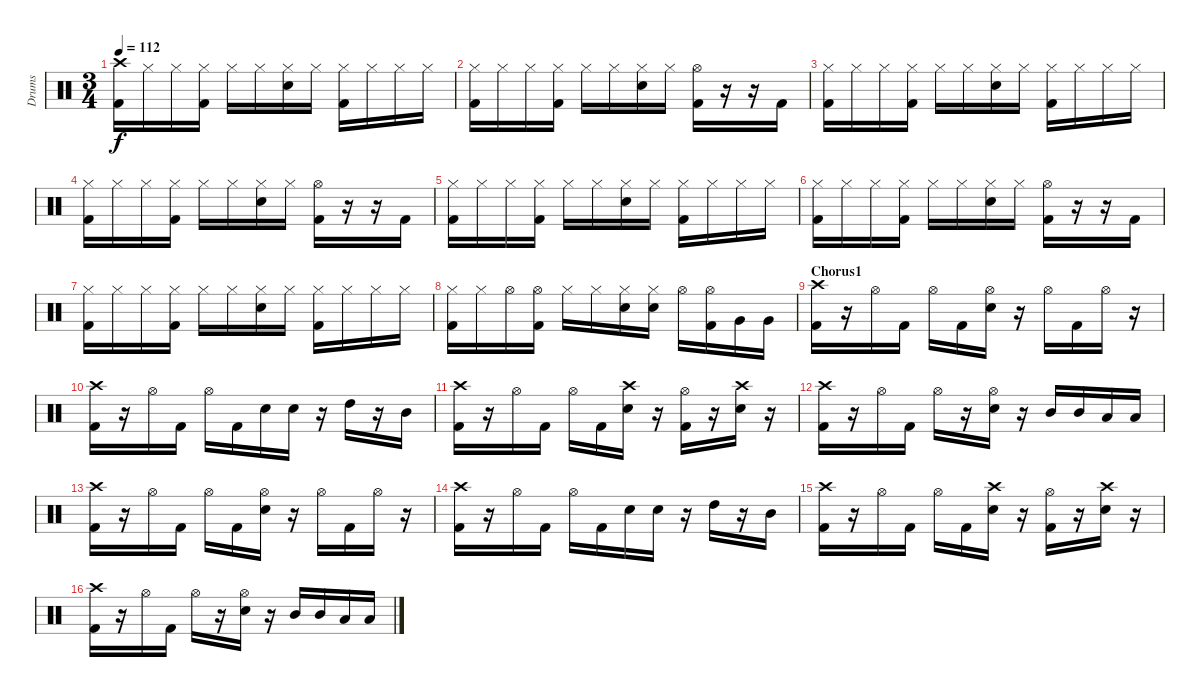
\track ("Drums" "Drums") {instrument percussion}
\staff {score}
\articulation defaults
\ts (3 4)
\tempo 112
\clef neutral
\ks c
("Crash high (hit)" "Kick (hit) 2").16{dy f} "Hi-Hat (closed)".16 "Hi-Hat (closed)".16 ("Hi-Hat (closed)" "Kick (hit) 2").16 "Hi-Hat (closed)".16 "Hi-Hat (closed)".16 ("Hi-Hat (closed)" "Electric Snare (hit)").16 "Hi-Hat (closed)".16 ("Hi-Hat (closed)" "Kick (hit) 2").16 "Hi-Hat (closed)".16 "Hi-Hat (closed)".16 "Hi-Hat (closed)".16 |
("Hi-Hat (closed)" "Kick (hit) 2").16 "Hi-Hat (closed)".16 "Hi-Hat (closed)".16 ("Hi-Hat (closed)" "Kick (hit) 2").16 "Hi-Hat (closed)".16 "Hi-Hat (closed)".16 ("Hi-Hat (closed)" "Electric Snare (hit)").16 "Hi-Hat (closed)".16 ("Hi-Hat (open)" "Kick (hit) 2").16 r.16 r.16 "Kick (hit) 2".16 |
("Hi-Hat (closed)" "Kick (hit) 2").16 "Hi-Hat (closed)".16 "Hi-Hat (closed)".16 ("Hi-Hat (closed)" "Kick (hit) 2").16 "Hi-Hat (closed)".16 "Hi-Hat (closed)".16 ("Hi-Hat (closed)" "Electric Snare (hit)").16 "Hi-Hat (closed)".16 ("Hi-Hat (closed)" "Kick (hit) 2").16 "Hi-Hat (closed)".16 "Hi-Hat (closed)".16 "Hi-Hat (closed)".16 |
("Hi-Hat (closed)" "Kick (hit) 2").16 "Hi-Hat (closed)".16 "Hi-Hat (closed)".16 ("Hi-Hat (closed)" "Kick (hit) 2").16 "Hi-Hat (closed)".16 "Hi-Hat (closed)".16 ("Hi-Hat (closed)" "Electric Snare (hit)").16 "Hi-Hat (closed)".16 ("Hi-Hat (open)" "Kick (hit) 2").16 r.16 r.16 "Kick (hit) 2".16 |
("Hi-Hat (closed)" "Kick (hit) 2").16 "Hi-Hat (closed)".16 "Hi-Hat (closed)".16 ("Hi-Hat (closed)" "Kick (hit) 2").16 "Hi-Hat (closed)".16 "Hi-Hat (closed)".16 ("Hi-Hat (closed)" "Electric Snare (hit)").16 "Hi-Hat (closed)".16 ("Hi-Hat (closed)" "Kick (hit) 2").16 "Hi-Hat (closed)".16 "Hi-Hat (closed)".16 "Hi-Hat (closed)".16 |
("Hi-Hat (closed)" "Kick (hit) 2").16 "Hi-Hat (closed)".16 "Hi-Hat (closed)".16 ("Hi-Hat (closed)" "Kick (hit) 2").16 "Hi-Hat (closed)".16 "Hi-Hat (closed)".16 ("Hi-Hat (closed)" "Electric Snare (hit)").16 "Hi-Hat (closed)".16 ("Hi-Hat (open)" "Kick (hit) 2").16 r.16 r.16 "Kick (hit) 2".16 |
("Hi-Hat (closed)" "Kick (hit) 2").16 "Hi-Hat (closed)".16 "Hi-Hat (closed)".16 ("Hi-Hat (closed)" "Kick (hit) 2").16 "Hi-Hat (closed)".16 "Hi-Hat (closed)".16 ("Hi-Hat (closed)" "Electric Snare (hit)").16 "Hi-Hat (closed)".16 ("Hi-Hat (closed)" "Kick (hit) 2").16 "Hi-Hat (closed)".16 "Hi-Hat (closed)".16 "Hi-Hat (closed)".16 |
("Hi-Hat (closed)" "Kick (hit) 2").16 "Hi-Hat (closed)".16 "Hi-Hat (open)".16 ("Hi-Hat (open)" "Kick (hit) 2").16 "Hi-Hat (closed)".16 "Hi-Hat (closed)".16 ("Hi-Hat (closed)" "Electric Snare (hit)").16 ("Hi-Hat (closed)" "Electric Snare (hit)").16 "Hi-Hat (open)".16 ("Hi-Hat (open)" "Kick (hit) 2").16 "Very Low Tom (hit)".16 "Very Low Tom (hit)".16 |
\section ("" "Chorus1")
("Crash high (hit)" "Kick (hit) 2").16 r.16 "Hi-Hat (open)".16 "Kick (hit) 2".16 "Hi-Hat (open)".16 "Kick (hit) 2".16 ("Hi-Hat (open)" "Electric Snare (hit)").16 r.16 "Hi-Hat (open)".16 "Kick (hit) 2".16 "Hi-Hat (open)".16 r.16 |
("Crash high (hit)" "Kick (hit) 2").16 r.16 "Hi-Hat (open)".16 "Kick (hit) 2".16 "Hi-Hat (open)".16 "Kick (hit) 2".16 "Electric Snare (hit)".16 "Electric Snare (hit)".16 r.16 "High Tom (hit)".16 r.16 "Mid Tom (hit)".16 |
("Crash high (hit)" "Kick (hit) 2").16 r.16 "Hi-Hat (open)".16 "Kick (hit) 2".16 "Hi-Hat (open)".16 "Kick (hit) 2".16 ("Crash high (hit)" "Electric Snare (hit)").16 r.16 ("Hi-Hat (open)" "Kick (hit) 2").16 r.16 ("Crash high (hit)" "Electric Snare (hit)").16 r.16 |
("Crash high (hit)" "Kick (hit) 2").16 r.16 "Hi-Hat (open)".16 "Kick (hit) 2".16 "Hi-Hat (open)".16 r.16 ("Hi-Hat (open)" "Electric Snare (hit)").16 r.16 "Mid Tom (hit)".16 "Mid Tom (hit)".16 "Low Tom (hit)".16 "Low Tom (hit)".16 |
("Crash high (hit)" "Kick (hit) 2").16 r.16 "Hi-Hat (open)".16 "Kick (hit) 2".16 "Hi-Hat (open)".16 "Kick (hit) 2".16 ("Hi-Hat (open)" "Electric Snare (hit)").16 r.16 "Hi-Hat (open)".16 "Kick (hit) 2".16 "Hi-Hat (open)".16 r.16 |
("Crash high (hit)" "Kick (hit) 2").16 r.16 "Hi-Hat (open)".16 "Kick (hit) 2".16 "Hi-Hat (open)".16 "Kick (hit) 2".16 "Electric Snare (hit)".16 "Electric Snare (hit)".16 r.16 "High Tom (hit)".16 r.16 "Mid Tom (hit)".16 |
("Crash high (hit)" "Kick (hit) 2").16 r.16 "Hi-Hat (open)".16 "Kick (hit) 2".16 "Hi-Hat (open)".16 "Kick (hit) 2".16 ("Crash high (hit)" "Electric Snare (hit)").16 r.16 ("Hi-Hat (open)" "Kick (hit) 2").16 r.16 ("Crash high (hit)" "Electric Snare (hit)").16 r.16 |
("Crash high (hit)" "Kick (hit) 2").16 r.16 "Hi-Hat (open)".16 "Kick (hit) 2".16 "Hi-Hat (open)".16 r.16 ("Hi-Hat (open)" "Electric Snare (hit)").16 r.16 "Mid Tom (hit)".16 "Mid Tom (hit)".16 "Low Tom (hit)".16 "Low Tom (hit)".16
